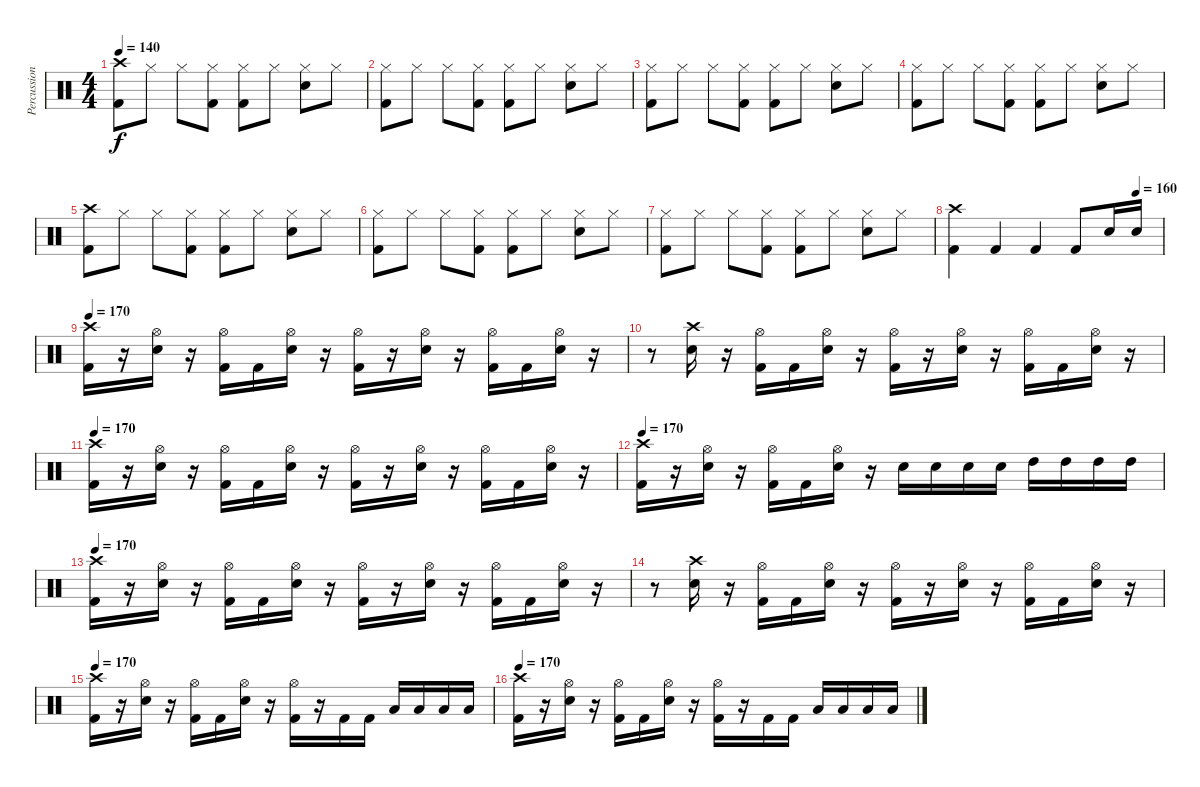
\track ("Percussioni" "Percussion") {instrument percussion}
\staff {score}
\articulation defaults
\ts (4 4)
\tempo 140
\clef neutral
\ks c
("Crash high (hit)" "Kick (hit) 2").8{dy f} "Hi-Hat (closed)".8 "Hi-Hat (closed)".8 ("Hi-Hat (closed)" "Kick (hit) 2").8 ("Hi-Hat (closed)" "Kick (hit) 2").8 "Hi-Hat (closed)".8 ("Hi-Hat (closed)" "Snare (hit) 2").8 "Hi-Hat (closed)".8 |
("Hi-Hat (closed)" "Kick (hit) 2").8 "Hi-Hat (closed)".8 "Hi-Hat (closed)".8 ("Hi-Hat (closed)" "Kick (hit) 2").8 ("Hi-Hat (closed)" "Kick (hit) 2").8 "Hi-Hat (closed)".8 ("Hi-Hat (closed)" "Snare (hit) 2").8 "Hi-Hat (closed)".8 |
("Hi-Hat (closed)" "Kick (hit) 2").8 "Hi-Hat (closed)".8 "Hi-Hat (closed)".8 ("Hi-Hat (closed)" "Kick (hit) 2").8 ("Hi-Hat (closed)" "Kick (hit) 2").8 "Hi-Hat (closed)".8 ("Hi-Hat (closed)" "Snare (hit) 2").8 "Hi-Hat (closed)".8 |
("Hi-Hat (closed)" "Kick (hit) 2").8 "Hi-Hat (closed)".8 "Hi-Hat (closed)".8 ("Hi-Hat (closed)" "Kick (hit) 2").8 ("Hi-Hat (closed)" "Kick (hit) 2").8 "Hi-Hat (closed)".8 ("Hi-Hat (closed)" "Snare (hit) 2").8 "Hi-Hat (closed)".8 |
("Crash high (hit)" "Kick (hit) 2").8 "Hi-Hat (closed)".8 "Hi-Hat (closed)".8 ("Hi-Hat (closed)" "Kick (hit) 2").8 ("Hi-Hat (closed)" "Kick (hit) 2").8 "Hi-Hat (closed)".8 ("Hi-Hat (closed)" "Snare (hit) 2").8 "Hi-Hat (closed)".8 |
("Hi-Hat (closed)" "Kick (hit) 2").8 "Hi-Hat (closed)".8 "Hi-Hat (closed)".8 ("Hi-Hat (closed)" "Kick (hit) 2").8 ("Hi-Hat (closed)" "Kick (hit) 2").8 "Hi-Hat (closed)".8 ("Hi-Hat (closed)" "Snare (hit) 2").8 "Hi-Hat (closed)".8 |
("Hi-Hat (closed)" "Kick (hit) 2").8 "Hi-Hat (closed)".8 "Hi-Hat (closed)".8 ("Hi-Hat (closed)" "Kick (hit) 2").8 ("Hi-Hat (closed)" "Kick (hit) 2").8 "Hi-Hat (closed)".8 ("Hi-Hat (closed)" "Snare (hit) 2").8 "Hi-Hat (closed)".8 |
\tempo (160 0.875)
("Crash high (hit)" "Kick (hit) 2").4 "Kick (hit) 2".4 "Kick (hit) 2".4 "Kick (hit) 2".8 "Snare (hit) 2".16 "Snare (hit) 2".16 |
\tempo 170
("Kick (hit) 2" "Crash high (hit)").16 r.16 ("Snare (hit) 2" "Hi-Hat (open)").16 r.16 ("Kick (hit) 2" "Hi-Hat (open)").16 "Kick (hit) 2".16 ("Snare (hit) 2" "Hi-Hat (open)").16 r.16 ("Kick (hit) 2" "Hi-Hat (open)").16 r.16 ("Snare (hit) 2" "Hi-Hat (open)").16 r.16 ("Kick (hit) 2" "Hi-Hat (open)").16 "Kick (hit) 2".16 ("Snare (hit) 2" "Hi-Hat (open)").16 r.16 |
r.8 ("Snare (hit) 2" "Crash high (hit)").16 r.16 ("Kick (hit) 2" "Hi-Hat (open)").16 "Kick (hit) 2".16 ("Snare (hit) 2" "Hi-Hat (open)").16 r.16 ("Kick (hit) 2" "Hi-Hat (open)").16 r.16 ("Snare (hit) 2" "Hi-Hat (open)").16 r.16 ("Kick (hit) 2" "Hi-Hat (open)").16 "Kick (hit) 2".16 ("Snare (hit) 2" "Hi-Hat (open)").16 r.16 |
\tempo 170
("Kick (hit) 2" "Crash high (hit)").16 r.16 ("Snare (hit) 2" "Hi-Hat (open)").16 r.16 ("Kick (hit) 2" "Hi-Hat (open)").16 "Kick (hit) 2".16 ("Snare (hit) 2" "Hi-Hat (open)").16 r.16 ("Kick (hit) 2" "Hi-Hat (open)").16 r.16 ("Snare (hit) 2" "Hi-Hat (open)").16 r.16 ("Kick (hit) 2" "Hi-Hat (open)").16 "Kick (hit) 2".16 ("Snare (hit) 2" "Hi-Hat (open)").16 r.16 |
\tempo 170
("Kick (hit) 2" "Crash high (hit)").16 r.16 ("Snare (hit) 2" "Hi-Hat (open)").16 r.16 ("Kick (hit) 2" "Hi-Hat (open)").16 "Kick (hit) 2".16 ("Snare (hit) 2" "Hi-Hat (open)").16 r.16 "Snare (hit) 2".16 "Snare (hit) 2".16 "Snare (hit) 2".16 "Snare (hit) 2".16 "High Tom (hit)".16 "High Tom (hit)".16 "High Tom (hit)".16 "High Tom (hit)".16 |
\tempo 170
("Kick (hit) 2" "Crash high (hit)").16 r.16 ("Snare (hit) 2" "Hi-Hat (open)").16 r.16 ("Kick (hit) 2" "Hi-Hat (open)").16 "Kick (hit) 2".16 ("Snare (hit) 2" "Hi-Hat (open)").16 r.16 ("Kick (hit) 2" "Hi-Hat (open)").16 r.16 ("Snare (hit) 2" "Hi-Hat (open)").16 r.16 ("Kick (hit) 2" "Hi-Hat (open)").16 "Kick (hit) 2".16 ("Snare (hit) 2" "Hi-Hat (open)").16 r.16 |
r.8 ("Snare (hit) 2" "Crash high (hit)").16 r.16 ("Kick (hit) 2" "Hi-Hat (open)").16 "Kick (hit) 2".16 ("Snare (hit) 2" "Hi-Hat (open)").16 r.16 ("Kick (hit) 2" "Hi-Hat (open)").16 r.16 ("Snare (hit) 2" "Hi-Hat (open)").16 r.16 ("Kick (hit) 2" "Hi-Hat (open)").16 "Kick (hit) 2".16 ("Snare (hit) 2" "Hi-Hat (open)").16 r.16 |
\tempo 170
("Kick (hit) 2" "Crash high (hit)").16 r.16 ("Snare (hit) 2" "Hi-Hat (open)").16 r.16 ("Kick (hit) 2" "Hi-Hat (open)").16 "Kick (hit) 2".16 ("Snare (hit) 2" "Hi-Hat (open)").16 r.16 ("Kick (hit) 2" "Hi-Hat (open)").16 r.16 "Kick (hit) 2".16 "Kick (hit) 2".16 "Low Tom (hit)".16 "Low Tom (hit)".16 "Low Tom (hit)".16 "Low Tom (hit)".16 |
\tempo 170
("Kick (hit) 2" "Crash high (hit)").16 r.16 ("Snare (hit) 2" "Hi-Hat (open)").16 r.16 ("Kick (hit) 2" "Hi-Hat (open)").16 "Kick (hit) 2".16 ("Snare (hit) 2" "Hi-Hat (open)").16 r.16 ("Kick (hit) 2" "Hi-Hat (open)").16 r.16 "Kick (hit) 2".16 "Kick (hit) 2".16 "Low Tom (hit)".16 "Low Tom (hit)".16 "Low Tom (hit)".16 "Low Tom (hit)".16
